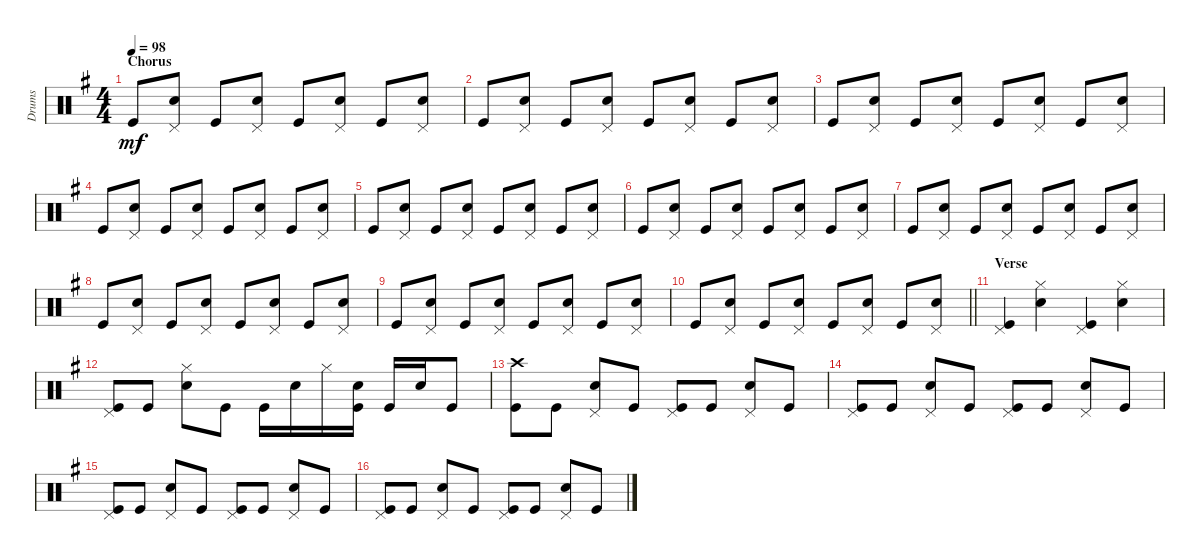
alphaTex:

\track ("Drums" "Drums") {instrument percussion}
\staff {score}
\articulation defaults
\ts (4 4)
\section ("" "Chorus")
\tempo 98
\clef neutral
\ks g "Kick (hit)".8{dy mf}
("Snare (hit) 2" "Pedal Hi-Hat (hit)").8 "Kick (hit)".8 ("Snare (hit) 2" "Pedal Hi-Hat (hit)").8 "Kick (hit)".8 ("Snare (hit) 2" "Pedal Hi-Hat (hit)").8 "Kick (hit)".8 ("Snare (hit) 2" "Pedal Hi-Hat (hit)").8 |
"Kick (hit)".8 ("Snare (hit) 2" "Pedal Hi-Hat (hit)").8 "Kick (hit)".8 ("Snare (hit) 2" "Pedal Hi-Hat (hit)").8 "Kick (hit)".8 ("Snare (hit) 2" "Pedal Hi-Hat (hit)").8 "Kick (hit)".8 ("Snare (hit) 2" "Pedal Hi-Hat (hit)").8 |
"Kick (hit)".8 ("Snare (hit) 2" "Pedal Hi-Hat (hit)").8 "Kick (hit)".8 ("Snare (hit) 2" "Pedal Hi-Hat (hit)").8 "Kick (hit)".8 ("Snare (hit) 2" "Pedal Hi-Hat (hit)").8 "Kick (hit)".8 ("Snare (hit) 2" "Pedal Hi-Hat (hit)").8 |
"Kick (hit)".8 ("Snare (hit) 2" "Pedal Hi-Hat (hit)").8 "Kick (hit)".8 ("Snare (hit) 2" "Pedal Hi-Hat (hit)").8 "Kick (hit)".8 ("Snare (hit) 2" "Pedal Hi-Hat (hit)").8 "Kick (hit)".8 ("Snare (hit) 2" "Pedal Hi-Hat (hit)").8 |
"Kick (hit)".8 ("Snare (hit) 2" "Pedal Hi-Hat (hit)").8 "Kick (hit)".8 ("Snare (hit) 2" "Pedal Hi-Hat (hit)").8 "Kick (hit)".8 ("Snare (hit) 2" "Pedal Hi-Hat (hit)").8 "Kick (hit)".8 ("Snare (hit) 2" "Pedal Hi-Hat (hit)").8 |
"Kick (hit)".8 ("Snare (hit) 2" "Pedal Hi-Hat (hit)").8 "Kick (hit)".8 ("Snare (hit) 2" "Pedal Hi-Hat (hit)").8 "Kick (hit)".8 ("Snare (hit) 2" "Pedal Hi-Hat (hit)").8 "Kick (hit)".8 ("Snare (hit) 2" "Pedal Hi-Hat (hit)").8 |
"Kick (hit)".8 ("Snare (hit) 2" "Pedal Hi-Hat (hit)").8 "Kick (hit)".8 ("Snare (hit) 2" "Pedal Hi-Hat (hit)").8 "Kick (hit)".8 ("Snare (hit) 2" "Pedal Hi-Hat (hit)").8 "Kick (hit)".8 ("Snare (hit) 2" "Pedal Hi-Hat (hit)").8 |
"Kick (hit)".8 ("Snare (hit) 2" "Pedal Hi-Hat (hit)").8 "Kick (hit)".8 ("Snare (hit) 2" "Pedal Hi-Hat (hit)").8 "Kick (hit)".8 ("Snare (hit) 2" "Pedal Hi-Hat (hit)").8 "Kick (hit)".8 ("Snare (hit) 2" "Pedal Hi-Hat (hit)").8 |
"Kick (hit)".8 ("Snare (hit) 2" "Pedal Hi-Hat (hit)").8 "Kick (hit)".8 ("Snare (hit) 2" "Pedal Hi-Hat (hit)").8 "Kick (hit)".8 ("Snare (hit) 2" "Pedal Hi-Hat (hit)").8 "Kick (hit)".8 ("Snare (hit) 2" "Pedal Hi-Hat (hit)").8 |
\barLineRight lightlight "Kick (hit)".8
("Snare (hit) 2" "Pedal Hi-Hat (hit)").8 "Kick (hit)".8 ("Snare (hit) 2" "Pedal Hi-Hat (hit)").8 "Kick (hit)".8 ("Snare (hit) 2" "Pedal Hi-Hat (hit)").8 "Kick (hit)".8 ("Snare (hit) 2" "Pedal Hi-Hat (hit)").8 |
\section ("" "Verse")
("Kick (hit)" "Pedal Hi-Hat (hit)").4 ("Snare (hit) 2" "Hi-Hat (closed)").4 ("Kick (hit)" "Pedal Hi-Hat (hit)").4 ("Snare (hit) 2" "Hi-Hat (closed)").4 |
("Kick (hit)" "Pedal Hi-Hat (hit)").8 "Kick (hit)".8 ("Snare (hit) 2" "Hi-Hat (closed)").8 "Kick (hit)".8 "Kick (hit)".16 "Snare (hit) 2".16 "Hi-Hat (closed)".16 ("Kick (hit)" "Snare (hit) 2").16 "Kick (hit)".16 "Snare (hit) 2".16 "Kick (hit)".8 |
("Crash high (hit)" "Kick (hit)").8 "Kick (hit)".8 ("Snare (hit) 2" "Pedal Hi-Hat (hit)").8 "Kick (hit)".8 ("Kick (hit)" "Pedal Hi-Hat (hit)").8 "Kick (hit)".8 ("Snare (hit) 2" "Pedal Hi-Hat (hit)").8 "Kick (hit)".8 |
("Kick (hit)" "Pedal Hi-Hat (hit)").8 "Kick (hit)".8 ("Snare (hit) 2" "Pedal Hi-Hat (hit)").8 "Kick (hit)".8 ("Kick (hit)" "Pedal Hi-Hat (hit)").8 "Kick (hit)".8 ("Snare (hit) 2" "Pedal Hi-Hat (hit)").8 "Kick (hit)".8 |
("Kick (hit)" "Pedal Hi-Hat (hit)").8 "Kick (hit)".8 ("Snare (hit) 2" "Pedal Hi-Hat (hit)").8 "Kick (hit)".8 ("Kick (hit)" "Pedal Hi-Hat (hit)").8 "Kick (hit)".8 ("Snare (hit) 2" "Pedal Hi-Hat (hit)").8 "Kick (hit)".8 |
("Kick (hit)" "Pedal Hi-Hat (hit)").8 "Kick (hit)".8 ("Snare (hit) 2" "Pedal Hi-Hat (hit)").8 "Kick (hit)".8 ("Kick (hit)" "Pedal Hi-Hat (hit)").8 "Kick (hit)".8 ("Snare (hit) 2" "Pedal Hi-Hat (hit)").8 "Kick (hit)".8
